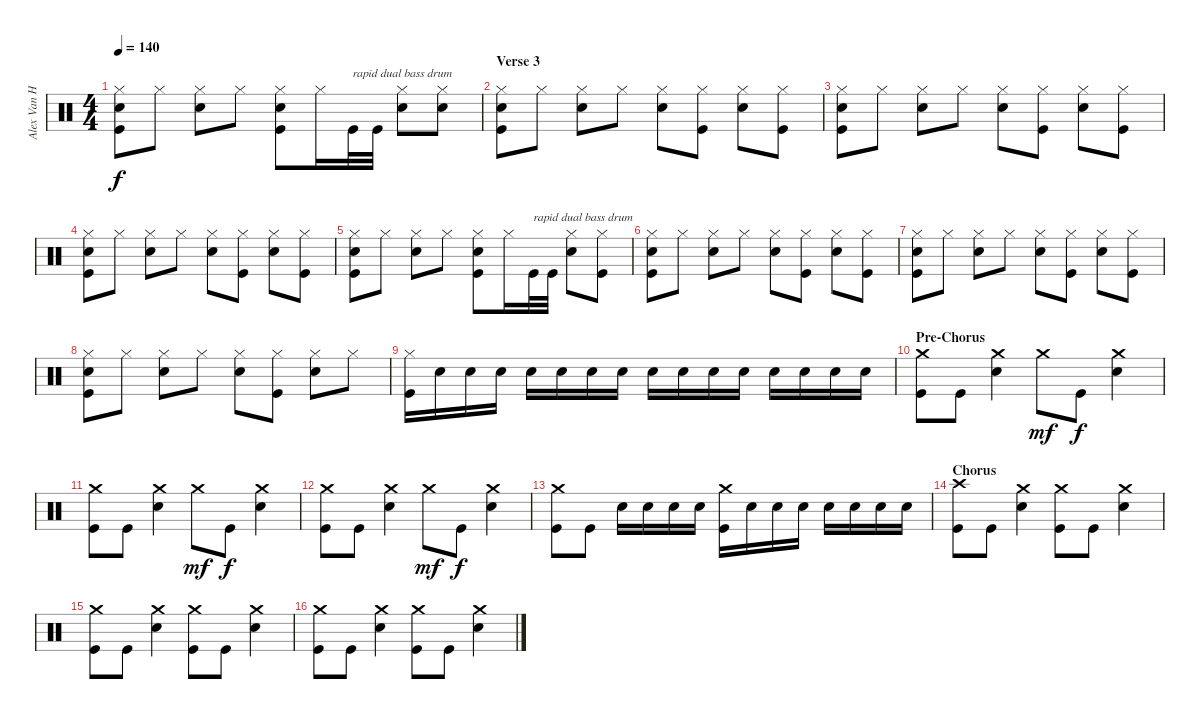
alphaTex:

\track ("Alex Van Halen (Drums)" "Alex Van H") {instrument percussion}
\staff {score}
\articulation defaults
\ts (4 4)
\tempo 140
\clef neutral
\ks c
("Hi-Hat (closed)" "Snare (hit) 2" "Kick (hit)").8{dy f} "Hi-Hat (closed)".8 ("Hi-Hat (closed)" "Snare (hit) 2").8 "Hi-Hat (closed)".8 ("Hi-Hat (closed)" "Snare (hit) 2" "Kick (hit)").8 "Hi-Hat (closed)".16 "Kick (hit)".32{txt "rapid dual bass drum"} "Kick (hit)".32 ("Hi-Hat (closed)" "Snare (hit) 2").8 ("Hi-Hat (closed)" "Snare (hit) 2").8 |
\section ("" "Verse 3")
("Hi-Hat (closed)" "Snare (hit) 2" "Kick (hit)").8 "Hi-Hat (closed)".8 ("Hi-Hat (closed)" "Snare (hit) 2").8 "Hi-Hat (closed)".8 ("Hi-Hat (closed)" "Snare (hit) 2").8 ("Hi-Hat (closed)" "Kick (hit)").8 ("Hi-Hat (closed)" "Snare (hit) 2").8 ("Hi-Hat (closed)" "Kick (hit)").8 |
("Hi-Hat (closed)" "Snare (hit) 2" "Kick (hit)").8 "Hi-Hat (closed)".8 ("Hi-Hat (closed)" "Snare (hit) 2").8 "Hi-Hat (closed)".8 ("Hi-Hat (closed)" "Snare (hit) 2").8 ("Hi-Hat (closed)" "Kick (hit)").8 ("Hi-Hat (closed)" "Snare (hit) 2").8 ("Hi-Hat (closed)" "Kick (hit)").8 |
("Hi-Hat (closed)" "Snare (hit) 2" "Kick (hit)").8 "Hi-Hat (closed)".8 ("Hi-Hat (closed)" "Snare (hit) 2").8 "Hi-Hat (closed)".8 ("Hi-Hat (closed)" "Snare (hit) 2").8 ("Hi-Hat (closed)" "Kick (hit)").8 ("Hi-Hat (closed)" "Snare (hit) 2").8 ("Hi-Hat (closed)" "Kick (hit)").8 |
("Hi-Hat (closed)" "Snare (hit) 2" "Kick (hit)").8 "Hi-Hat (closed)".8 ("Hi-Hat (closed)" "Snare (hit) 2").8 "Hi-Hat (closed)".8 ("Hi-Hat (closed)" "Snare (hit) 2" "Kick (hit)").8 "Hi-Hat (closed)".16 "Kick (hit)".32{txt "rapid dual bass drum"} "Kick (hit)".32 ("Hi-Hat (closed)" "Snare (hit) 2").8 ("Hi-Hat (closed)" "Kick (hit)").8 |
("Hi-Hat (closed)" "Snare (hit) 2" "Kick (hit)").8 "Hi-Hat (closed)".8 ("Hi-Hat (closed)" "Snare (hit) 2").8 "Hi-Hat (closed)".8 ("Hi-Hat (closed)" "Snare (hit) 2").8 ("Hi-Hat (closed)" "Kick (hit)").8 ("Hi-Hat (closed)" "Snare (hit) 2").8 ("Hi-Hat (closed)" "Kick (hit)").8 |
("Hi-Hat (closed)" "Snare (hit) 2" "Kick (hit)").8 "Hi-Hat (closed)".8 ("Hi-Hat (closed)" "Snare (hit) 2").8 "Hi-Hat (closed)".8 ("Hi-Hat (closed)" "Snare (hit) 2").8 ("Hi-Hat (closed)" "Kick (hit)").8 ("Hi-Hat (closed)" "Snare (hit) 2").8 ("Hi-Hat (closed)" "Kick (hit)").8 |
("Hi-Hat (closed)" "Snare (hit) 2" "Kick (hit)").8 "Hi-Hat (closed)".8 ("Hi-Hat (closed)" "Snare (hit) 2").8 "Hi-Hat (closed)".8 ("Hi-Hat (closed)" "Snare (hit) 2").8 ("Hi-Hat (closed)" "Kick (hit)").8 ("Hi-Hat (closed)" "Snare (hit) 2").8 "Hi-Hat (closed)".8 |
("Hi-Hat (closed)" "Kick (hit)").16 "Snare (hit) 2".16 "Snare (hit) 2".16 "Snare (hit) 2".16 "Snare (hit) 2".16 "Snare (hit) 2".16 "Snare (hit) 2".16 "Snare (hit) 2".16 "Snare (hit) 2".16 "Snare (hit) 2".16 "Snare (hit) 2".16 "Snare (hit) 2".16 "Snare (hit) 2".16 "Snare (hit) 2".16 "Snare (hit) 2".16 "Snare (hit) 2".16 |
\section ("" "Pre-Chorus")
("Crash medium (hit)" "Kick (hit)").8 "Kick (hit)".8 ("Crash medium (hit)" "Snare (hit) 2").4 "Crash medium (hit)".8{dy mf} "Kick (hit)".8{dy f} ("Crash medium (hit)" "Snare (hit) 2").4 |
("Crash medium (hit)" "Kick (hit)").8 "Kick (hit)".8 ("Crash medium (hit)" "Snare (hit) 2").4 "Crash medium (hit)".8{dy mf} "Kick (hit)".8{dy f} ("Crash medium (hit)" "Snare (hit) 2").4 |
("Crash medium (hit)" "Kick (hit)").8 "Kick (hit)".8 ("Crash medium (hit)" "Snare (hit) 2").4 "Crash medium (hit)".8{dy mf} "Kick (hit)".8{dy f} ("Crash medium (hit)" "Snare (hit) 2").4 |
("Crash medium (hit)" "Kick (hit)").8 "Kick (hit)".8 "Snare (hit) 2".16 "Snare (hit) 2".16 "Snare (hit) 2".16 "Snare (hit) 2".16 ("Crash medium (hit)" "Kick (hit)").16 "Snare (hit) 2".16 "Snare (hit) 2".16 "Snare (hit) 2".16 "Snare (hit) 2".16 "Snare (hit) 2".16 "Snare (hit) 2".16 "Snare (hit) 2".16 |
\section ("" "Chorus")
("Crash high (hit)" "Kick (hit)").8 "Kick (hit)".8 ("Crash medium (hit)" "Snare (hit) 2").4 ("Crash medium (hit)" "Kick (hit)").8 "Kick (hit)".8 ("Crash medium (hit)" "Snare (hit) 2").4 |
("Crash medium (hit)" "Kick (hit)").8 "Kick (hit)".8 ("Crash medium (hit)" "Snare (hit) 2").4 ("Crash medium (hit)" "Kick (hit)").8 "Kick (hit)".8 ("Crash medium (hit)" "Snare (hit) 2").4 |
("Crash medium (hit)" "Kick (hit)").8 "Kick (hit)".8 ("Crash medium (hit)" "Snare (hit) 2").4 ("Crash medium (hit)" "Kick (hit)").8 "Kick (hit)".8 ("Crash medium (hit)" "Snare (hit) 2").4
